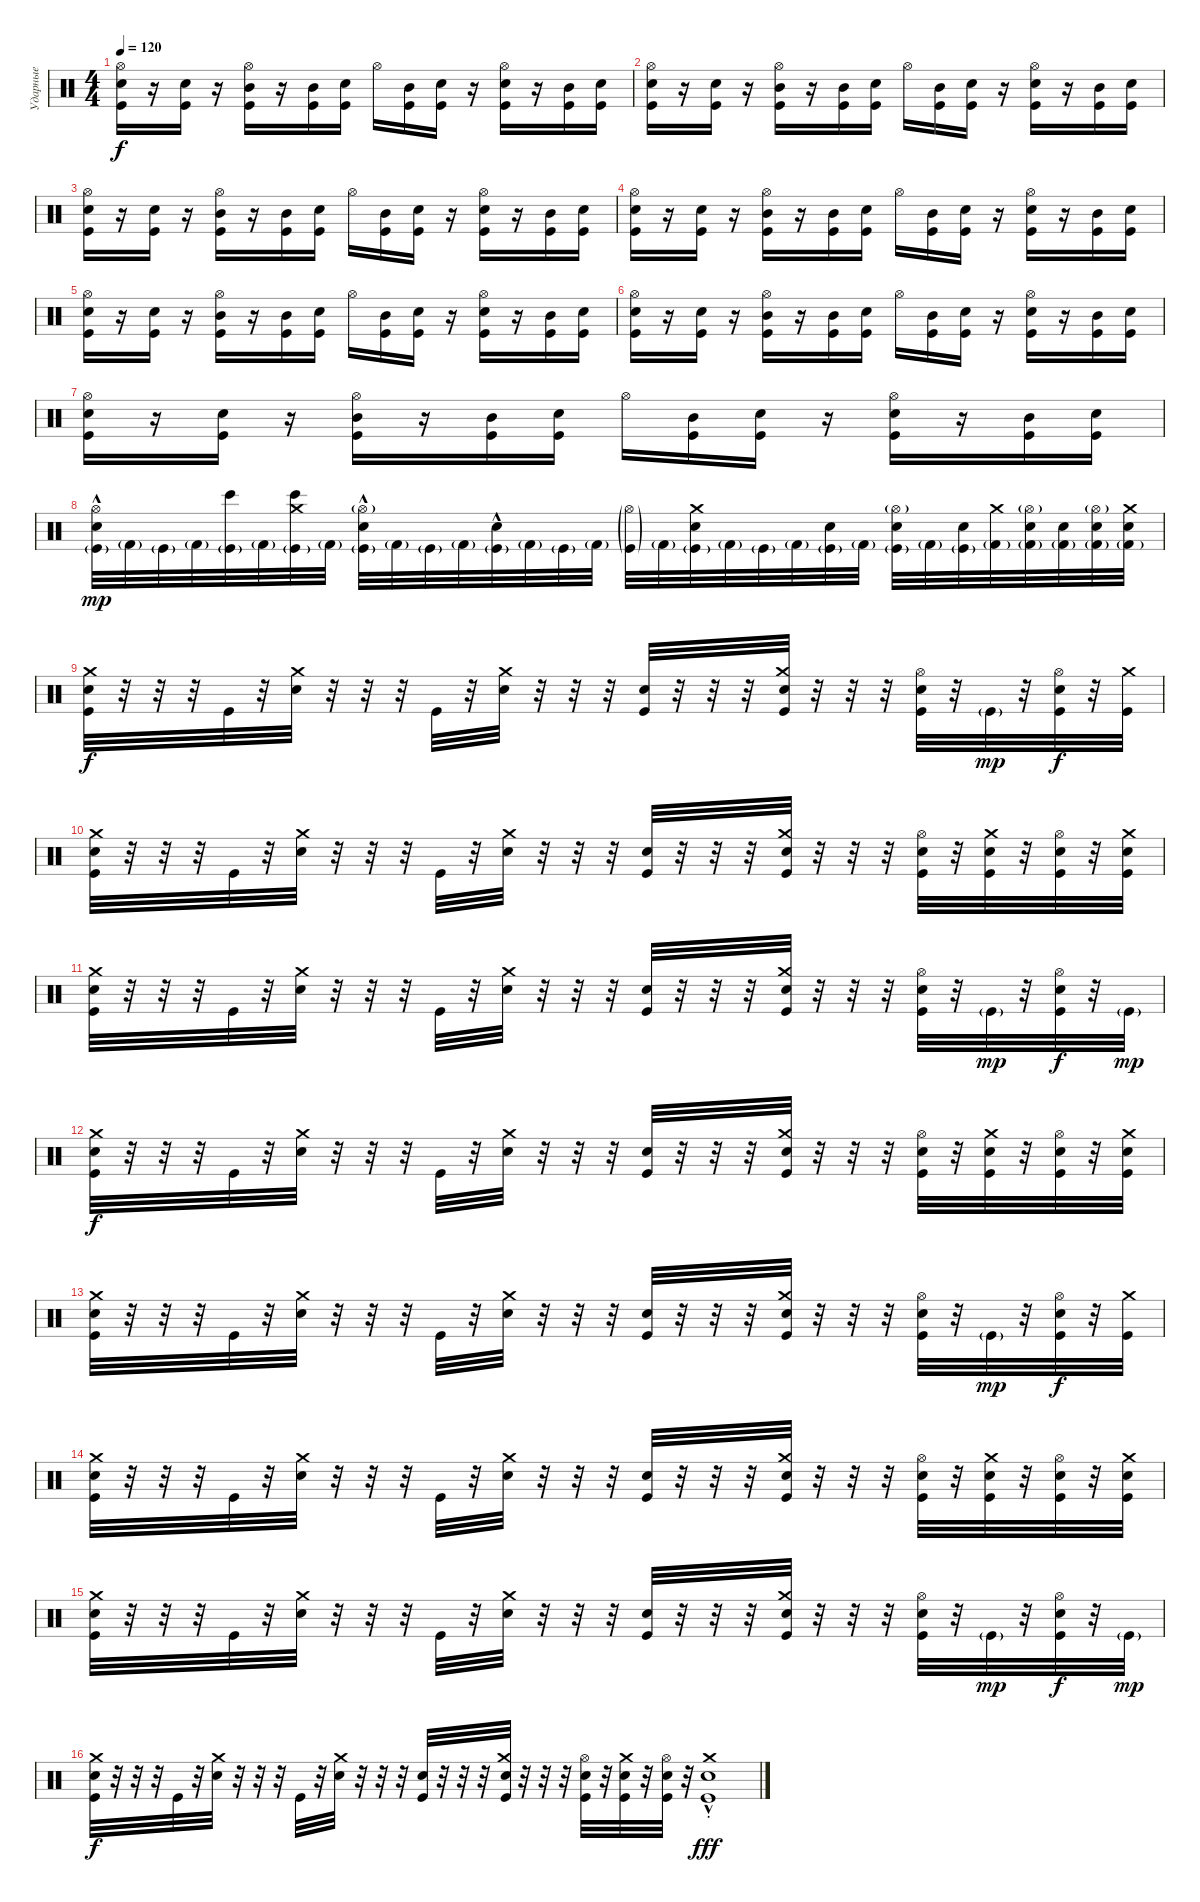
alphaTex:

\track ("Ударные" "Ударные") {instrument percussion}
\staff {score}
\articulation defaults
\ts (4 4)
\tempo 120
\clef neutral
\ks c
("Hi-Hat (open)" "Snare (hit) 2" "Kick (hit)").16{dy f} r.16 ("Snare (hit) 2" "Kick (hit)").16 r.16 ("Hi-Hat (open)" "Mid Tom (hit)" "Kick (hit)").16 r.16 ("Mid Tom (hit)" "Kick (hit)").16 ("Snare (hit) 2" "Kick (hit)").16 "Hi-Hat (open)".16 ("Mid Tom (hit)" "Kick (hit)").16 ("Snare (hit) 2" "Kick (hit)").16 r.16 ("Hi-Hat (open)" "Snare (hit) 2" "Kick (hit)").16 r.16 ("Mid Tom (hit)" "Kick (hit)").16 ("Snare (hit) 2" "Kick (hit)").16 |
("Hi-Hat (open)" "Snare (hit) 2" "Kick (hit)").16 r.16 ("Snare (hit) 2" "Kick (hit)").16 r.16 ("Hi-Hat (open)" "Mid Tom (hit)" "Kick (hit)").16 r.16 ("Mid Tom (hit)" "Kick (hit)").16 ("Snare (hit) 2" "Kick (hit)").16 "Hi-Hat (open)".16 ("Mid Tom (hit)" "Kick (hit)").16 ("Snare (hit) 2" "Kick (hit)").16 r.16 ("Hi-Hat (open)" "Snare (hit) 2" "Kick (hit)").16 r.16 ("Mid Tom (hit)" "Kick (hit)").16 ("Snare (hit) 2" "Kick (hit)").16 |
("Hi-Hat (open)" "Snare (hit) 2" "Kick (hit)").16 r.16 ("Snare (hit) 2" "Kick (hit)").16 r.16 ("Hi-Hat (open)" "Mid Tom (hit)" "Kick (hit)").16 r.16 ("Mid Tom (hit)" "Kick (hit)").16 ("Snare (hit) 2" "Kick (hit)").16 "Hi-Hat (open)".16 ("Mid Tom (hit)" "Kick (hit)").16 ("Snare (hit) 2" "Kick (hit)").16 r.16 ("Hi-Hat (open)" "Snare (hit) 2" "Kick (hit)").16 r.16 ("Mid Tom (hit)" "Kick (hit)").16 ("Snare (hit) 2" "Kick (hit)").16 |
("Hi-Hat (open)" "Snare (hit) 2" "Kick (hit)").16 r.16 ("Snare (hit) 2" "Kick (hit)").16 r.16 ("Hi-Hat (open)" "Mid Tom (hit)" "Kick (hit)").16 r.16 ("Mid Tom (hit)" "Kick (hit)").16 ("Snare (hit) 2" "Kick (hit)").16 "Hi-Hat (open)".16 ("Mid Tom (hit)" "Kick (hit)").16 ("Snare (hit) 2" "Kick (hit)").16 r.16 ("Hi-Hat (open)" "Snare (hit) 2" "Kick (hit)").16 r.16 ("Mid Tom (hit)" "Kick (hit)").16 ("Snare (hit) 2" "Kick (hit)").16 |
("Hi-Hat (open)" "Snare (hit) 2" "Kick (hit)").16 r.16 ("Snare (hit) 2" "Kick (hit)").16 r.16 ("Hi-Hat (open)" "Mid Tom (hit)" "Kick (hit)").16 r.16 ("Mid Tom (hit)" "Kick (hit)").16 ("Snare (hit) 2" "Kick (hit)").16 "Hi-Hat (open)".16 ("Mid Tom (hit)" "Kick (hit)").16 ("Snare (hit) 2" "Kick (hit)").16 r.16 ("Hi-Hat (open)" "Snare (hit) 2" "Kick (hit)").16 r.16 ("Mid Tom (hit)" "Kick (hit)").16 ("Snare (hit) 2" "Kick (hit)").16 |
("Hi-Hat (open)" "Snare (hit) 2" "Kick (hit)").16 r.16 ("Snare (hit) 2" "Kick (hit)").16 r.16 ("Hi-Hat (open)" "Mid Tom (hit)" "Kick (hit)").16 r.16 ("Mid Tom (hit)" "Kick (hit)").16 ("Snare (hit) 2" "Kick (hit)").16 "Hi-Hat (open)".16 ("Mid Tom (hit)" "Kick (hit)").16 ("Snare (hit) 2" "Kick (hit)").16 r.16 ("Hi-Hat (open)" "Snare (hit) 2" "Kick (hit)").16 r.16 ("Mid Tom (hit)" "Kick (hit)").16 ("Snare (hit) 2" "Kick (hit)").16 |
("Hi-Hat (open)" "Snare (hit) 2" "Kick (hit)").16 r.16 ("Snare (hit) 2" "Kick (hit)").16 r.16 ("Hi-Hat (open)" "Mid Tom (hit)" "Kick (hit)").16 r.16 ("Mid Tom (hit)" "Kick (hit)").16 ("Snare (hit) 2" "Kick (hit)").16 "Hi-Hat (open)".16 ("Mid Tom (hit)" "Kick (hit)").16 ("Snare (hit) 2" "Kick (hit)").16 r.16 ("Hi-Hat (open)" "Snare (hit) 2" "Kick (hit)").16 r.16 ("Mid Tom (hit)" "Kick (hit)").16 ("Snare (hit) 2" "Kick (hit)").16 |
("Hi-Hat (open)" "Snare (hit) 2"{hac} "Kick (hit)"{g}).32{dy mp} "Kick (hit) 2"{g}.32 "Kick (hit)"{g}.32 "Kick (hit) 2"{g}.32 ("Bongo High (hit)" "Kick (hit)"{g}).32 "Kick (hit) 2"{g}.32 ("Crash medium (hit)" "Bongo High (hit)" "Kick (hit)"{g}).32 "Kick (hit) 2"{g}.32 ("Hi-Hat (open)"{g} "Electric Snare (hit)"{hac} "Kick (hit)"{g}).32 "Kick (hit) 2"{g}.32 "Kick (hit)"{g}.32 "Kick (hit) 2"{g}.32 ("Snare (hit) 2"{hac} "Kick (hit)"{g}).32 "Kick (hit) 2"{g}.32 "Kick (hit)"{g}.32 "Kick (hit) 2"{g}.32 ("Hi-Hat (open)"{g} "Kick (hit)"{g}).32 "Kick (hit) 2"{g}.32 ("Crash medium (hit)" "Snare (hit) 2" "Kick (hit)"{g}).32 "Kick (hit) 2"{g}.32 "Kick (hit)"{g}.32 "Kick (hit) 2"{g}.32 ("Snare (hit) 2" "Kick (hit)"{g}).32 "Kick (hit) 2"{g}.32 ("Hi-Hat (open)"{g} "Electric Snare (hit)" "Kick (hit)"{g}).32 "Kick (hit) 2"{g}.32 ("Electric Snare (hit)" "Kick (hit)"{g}).32 ("Crash medium (hit)" "Kick (hit) 2"{g}).32 ("Hi-Hat (open)"{g} "Electric Snare (hit)" "Kick (hit) 2"{g}).32 ("Electric Snare (hit)" "Kick (hit) 2"{g}).32 ("Hi-Hat (open)"{g} "Electric Snare (hit)" "Kick (hit) 2"{g}).32 ("Crash medium (hit)" "Electric Snare (hit)" "Kick (hit) 2"{g}).32 |
("Crash medium (hit)" "Electric Snare (hit)" "Kick (hit)").32{dy f} r.32 r.32 r.32 "Kick (hit)".32 r.32 ("Crash medium (hit)" "Electric Snare (hit)").32 r.32 r.32 r.32 "Kick (hit)".32 r.32 ("Crash medium (hit)" "Electric Snare (hit)").32 r.32 r.32 r.32 ("Electric Snare (hit)" "Kick (hit)").32 r.32 r.32 r.32 ("Crash medium (hit)" "Electric Snare (hit)" "Kick (hit)").32 r.32 r.32 r.32 ("Hi-Hat (open)" "Electric Snare (hit)" "Kick (hit)").32 r.32 "Kick (hit)"{g}.32{dy mp} r.32 ("Hi-Hat (open)" "Electric Snare (hit)" "Kick (hit)").32{dy f} r.32 ("Crash medium (hit)" "Kick (hit)").32 |
("Crash medium (hit)" "Electric Snare (hit)" "Kick (hit)").32 r.32 r.32 r.32 "Kick (hit)".32 r.32 ("Crash medium (hit)" "Electric Snare (hit)").32 r.32 r.32 r.32 "Kick (hit)".32 r.32 ("Crash medium (hit)" "Electric Snare (hit)").32 r.32 r.32 r.32 ("Electric Snare (hit)" "Kick (hit)").32 r.32 r.32 r.32 ("Crash medium (hit)" "Electric Snare (hit)" "Kick (hit)").32 r.32 r.32 r.32 ("Hi-Hat (open)" "Electric Snare (hit)" "Kick (hit)").32 r.32 ("Crash medium (hit)" "Electric Snare (hit)" "Kick (hit)").32 r.32 ("Hi-Hat (open)" "Electric Snare (hit)" "Kick (hit)").32 r.32 ("Crash medium (hit)" "Electric Snare (hit)" "Kick (hit)").32 |
("Crash medium (hit)" "Electric Snare (hit)" "Kick (hit)").32 r.32 r.32 r.32 "Kick (hit)".32 r.32 ("Crash medium (hit)" "Electric Snare (hit)").32 r.32 r.32 r.32 "Kick (hit)".32 r.32 ("Crash medium (hit)" "Electric Snare (hit)").32 r.32 r.32 r.32 ("Electric Snare (hit)" "Kick (hit)").32 r.32 r.32 r.32 ("Crash medium (hit)" "Electric Snare (hit)" "Kick (hit)").32 r.32 r.32 r.32 ("Hi-Hat (open)" "Electric Snare (hit)" "Kick (hit)").32 r.32 "Kick (hit)"{g}.32{dy mp} r.32 ("Hi-Hat (open)" "Electric Snare (hit)" "Kick (hit)").32{dy f} r.32 "Kick (hit)"{g}.32{dy mp} |
("Crash medium (hit)" "Electric Snare (hit)" "Kick (hit)").32{dy f} r.32 r.32 r.32 "Kick (hit)".32 r.32 ("Crash medium (hit)" "Electric Snare (hit)").32 r.32 r.32 r.32 "Kick (hit)".32 r.32 ("Crash medium (hit)" "Electric Snare (hit)").32 r.32 r.32 r.32 ("Electric Snare (hit)" "Kick (hit)").32 r.32 r.32 r.32 ("Crash medium (hit)" "Electric Snare (hit)" "Kick (hit)").32 r.32 r.32 r.32 ("Hi-Hat (open)" "Electric Snare (hit)" "Kick (hit)").32 r.32 ("Crash medium (hit)" "Electric Snare (hit)" "Kick (hit)").32 r.32 ("Hi-Hat (open)" "Electric Snare (hit)" "Kick (hit)").32 r.32 ("Crash medium (hit)" "Electric Snare (hit)" "Kick (hit)").32 |
("Crash medium (hit)" "Electric Snare (hit)" "Kick (hit)").32 r.32 r.32 r.32 "Kick (hit)".32 r.32 ("Crash medium (hit)" "Electric Snare (hit)").32 r.32 r.32 r.32 "Kick (hit)".32 r.32 ("Crash medium (hit)" "Electric Snare (hit)").32 r.32 r.32 r.32 ("Electric Snare (hit)" "Kick (hit)").32 r.32 r.32 r.32 ("Crash medium (hit)" "Electric Snare (hit)" "Kick (hit)").32 r.32 r.32 r.32 ("Hi-Hat (open)" "Electric Snare (hit)" "Kick (hit)").32 r.32 "Kick (hit)"{g}.32{dy mp} r.32 ("Hi-Hat (open)" "Electric Snare (hit)" "Kick (hit)").32{dy f} r.32 ("Crash medium (hit)" "Kick (hit)").32 |
("Crash medium (hit)" "Electric Snare (hit)" "Kick (hit)").32 r.32 r.32 r.32 "Kick (hit)".32 r.32 ("Crash medium (hit)" "Electric Snare (hit)").32 r.32 r.32 r.32 "Kick (hit)".32 r.32 ("Crash medium (hit)" "Electric Snare (hit)").32 r.32 r.32 r.32 ("Electric Snare (hit)" "Kick (hit)").32 r.32 r.32 r.32 ("Crash medium (hit)" "Electric Snare (hit)" "Kick (hit)").32 r.32 r.32 r.32 ("Hi-Hat (open)" "Electric Snare (hit)" "Kick (hit)").32 r.32 ("Crash medium (hit)" "Electric Snare (hit)" "Kick (hit)").32 r.32 ("Hi-Hat (open)" "Electric Snare (hit)" "Kick (hit)").32 r.32 ("Crash medium (hit)" "Electric Snare (hit)" "Kick (hit)").32 |
("Crash medium (hit)" "Electric Snare (hit)" "Kick (hit)").32 r.32 r.32 r.32 "Kick (hit)".32 r.32 ("Crash medium (hit)" "Electric Snare (hit)").32 r.32 r.32 r.32 "Kick (hit)".32 r.32 ("Crash medium (hit)" "Electric Snare (hit)").32 r.32 r.32 r.32 ("Electric Snare (hit)" "Kick (hit)").32 r.32 r.32 r.32 ("Crash medium (hit)" "Electric Snare (hit)" "Kick (hit)").32 r.32 r.32 r.32 ("Hi-Hat (open)" "Electric Snare (hit)" "Kick (hit)").32 r.32 "Kick (hit)"{g}.32{dy mp} r.32 ("Hi-Hat (open)" "Electric Snare (hit)" "Kick (hit)").32{dy f} r.32 "Kick (hit)"{g}.32{dy mp} |
("Crash medium (hit)" "Electric Snare (hit)" "Kick (hit)").32{dy f} r.32 r.32 r.32 "Kick (hit)".32 r.32 ("Crash medium (hit)" "Electric Snare (hit)").32 r.32 r.32 r.32 "Kick (hit)".32 r.32 ("Crash medium (hit)" "Electric Snare (hit)").32 r.32 r.32 r.32 ("Electric Snare (hit)" "Kick (hit)").32 r.32 r.32 r.32 ("Crash medium (hit)" "Electric Snare (hit)" "Kick (hit)").32 r.32 r.32 r.32 ("Hi-Hat (open)" "Electric Snare (hit)" "Kick (hit)").32 r.32 ("Crash medium (hit)" "Electric Snare (hit)" "Kick (hit)").32 r.32 ("Hi-Hat (open)" "Electric Snare (hit)" "Kick (hit)").32 r.32 ("Crash medium (hit)" "Electric Snare (hit)"{hac} "Kick (hit)"{hac st}).1{dy fff}
